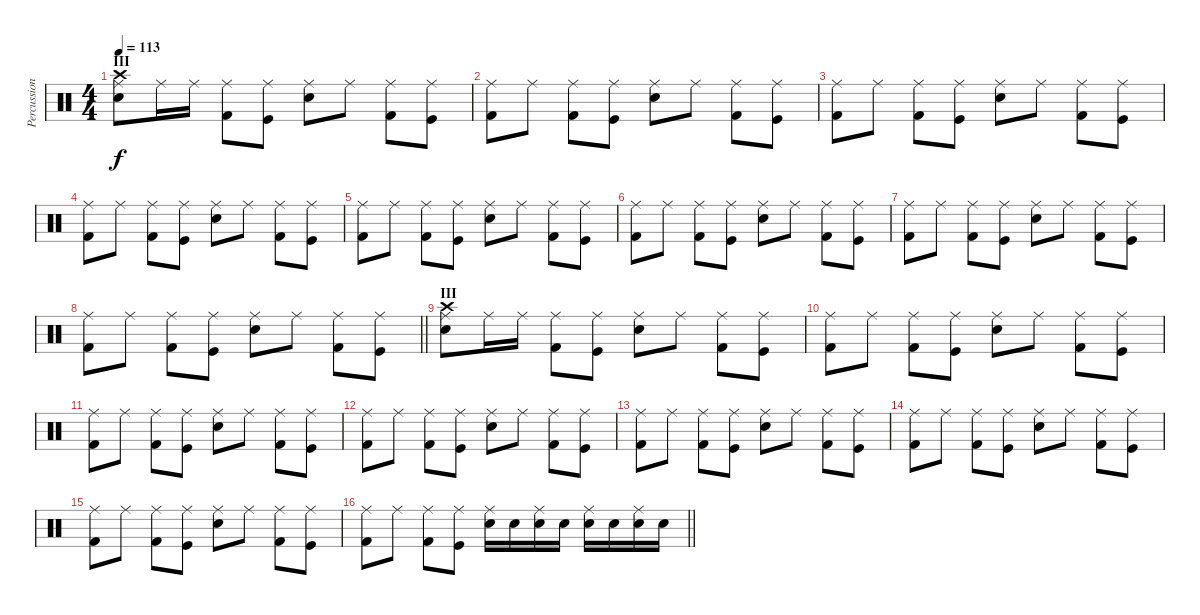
\track ("Percussion" "Percussion") {instrument percussion}
\staff {score}
\articulation defaults
\ts (4 4)
\section ("" "III")
\tempo 113
\clef neutral
\ks c
("Crash high (hit)" "Electric Snare (hit)" "Ride (middle)").8{dy f} "Ride (middle)".16 "Ride (middle)".16 ("Kick (hit) 2" "Ride (middle)").8 ("Kick (hit)" "Ride (middle)").8 ("Electric Snare (hit)" "Ride (middle)").8 "Ride (middle)".8 ("Kick (hit) 2" "Ride (middle)").8 ("Kick (hit)" "Ride (middle)").8 |
("Kick (hit) 2" "Ride (middle)").8 "Ride (middle)".8 ("Kick (hit) 2" "Ride (middle)").8 ("Kick (hit)" "Ride (middle)").8 ("Electric Snare (hit)" "Ride (middle)").8 "Ride (middle)".8 ("Kick (hit) 2" "Ride (middle)").8 ("Kick (hit)" "Ride (middle)").8 |
("Kick (hit) 2" "Ride (middle)").8 "Ride (middle)".8 ("Kick (hit) 2" "Ride (middle)").8 ("Kick (hit)" "Ride (middle)").8 ("Electric Snare (hit)" "Ride (middle)").8 "Ride (middle)".8 ("Kick (hit) 2" "Ride (middle)").8 ("Kick (hit)" "Ride (middle)").8 |
("Kick (hit) 2" "Ride (middle)").8 "Ride (middle)".8 ("Kick (hit) 2" "Ride (middle)").8 ("Kick (hit)" "Ride (middle)").8 ("Electric Snare (hit)" "Ride (middle)").8 "Ride (middle)".8 ("Kick (hit) 2" "Ride (middle)").8 ("Kick (hit)" "Ride (middle)").8 |
("Kick (hit) 2" "Ride (middle)").8 "Ride (middle)".8 ("Kick (hit) 2" "Ride (middle)").8 ("Kick (hit)" "Ride (middle)").8 ("Electric Snare (hit)" "Ride (middle)").8 "Ride (middle)".8 ("Kick (hit) 2" "Ride (middle)").8 ("Kick (hit)" "Ride (middle)").8 |
("Kick (hit) 2" "Ride (middle)").8 "Ride (middle)".8 ("Kick (hit) 2" "Ride (middle)").8 ("Kick (hit)" "Ride (middle)").8 ("Electric Snare (hit)" "Ride (middle)").8 "Ride (middle)".8 ("Kick (hit) 2" "Ride (middle)").8 ("Kick (hit)" "Ride (middle)").8 |
("Kick (hit) 2" "Ride (middle)").8 "Ride (middle)".8 ("Kick (hit) 2" "Ride (middle)").8 ("Kick (hit)" "Ride (middle)").8 ("Electric Snare (hit)" "Ride (middle)").8 "Ride (middle)".8 ("Kick (hit) 2" "Ride (middle)").8 ("Kick (hit)" "Ride (middle)").8 |
\barLineRight lightlight
("Kick (hit) 2" "Ride (middle)").8 "Ride (middle)".8 ("Kick (hit) 2" "Ride (middle)").8 ("Kick (hit)" "Ride (middle)").8 ("Electric Snare (hit)" "Ride (middle)").8 "Ride (middle)".8 ("Kick (hit) 2" "Ride (middle)").8 ("Kick (hit)" "Ride (middle)").8 |
\section ("" "III")
("Crash high (hit)" "Electric Snare (hit)" "Ride (middle)").8 "Ride (middle)".16 "Ride (middle)".16 ("Kick (hit) 2" "Ride (middle)").8 ("Kick (hit)" "Ride (middle)").8 ("Electric Snare (hit)" "Ride (middle)").8 "Ride (middle)".8 ("Kick (hit) 2" "Ride (middle)").8 ("Kick (hit)" "Ride (middle)").8 |
("Kick (hit) 2" "Ride (middle)").8 "Ride (middle)".8 ("Kick (hit) 2" "Ride (middle)").8 ("Kick (hit)" "Ride (middle)").8 ("Electric Snare (hit)" "Ride (middle)").8 "Ride (middle)".8 ("Kick (hit) 2" "Ride (middle)").8 ("Kick (hit)" "Ride (middle)").8 |
("Kick (hit) 2" "Ride (middle)").8 "Ride (middle)".8 ("Kick (hit) 2" "Ride (middle)").8 ("Kick (hit)" "Ride (middle)").8 ("Electric Snare (hit)" "Ride (middle)").8 "Ride (middle)".8 ("Kick (hit) 2" "Ride (middle)").8 ("Kick (hit)" "Ride (middle)").8 |
("Kick (hit) 2" "Ride (middle)").8 "Ride (middle)".8 ("Kick (hit) 2" "Ride (middle)").8 ("Kick (hit)" "Ride (middle)").8 ("Electric Snare (hit)" "Ride (middle)").8 "Ride (middle)".8 ("Kick (hit) 2" "Ride (middle)").8 ("Kick (hit)" "Ride (middle)").8 |
("Kick (hit) 2" "Ride (middle)").8 "Ride (middle)".8 ("Kick (hit) 2" "Ride (middle)").8 ("Kick (hit)" "Ride (middle)").8 ("Electric Snare (hit)" "Ride (middle)").8 "Ride (middle)".8 ("Kick (hit) 2" "Ride (middle)").8 ("Kick (hit)" "Ride (middle)").8 |
("Kick (hit) 2" "Ride (middle)").8 "Ride (middle)".8 ("Kick (hit) 2" "Ride (middle)").8 ("Kick (hit)" "Ride (middle)").8 ("Electric Snare (hit)" "Ride (middle)").8 "Ride (middle)".8 ("Kick (hit) 2" "Ride (middle)").8 ("Kick (hit)" "Ride (middle)").8 |
("Kick (hit) 2" "Ride (middle)").8 "Ride (middle)".8 ("Kick (hit) 2" "Ride (middle)").8 ("Kick (hit)" "Ride (middle)").8 ("Electric Snare (hit)" "Ride (middle)").8 "Ride (middle)".8 ("Kick (hit) 2" "Ride (middle)").8 ("Kick (hit)" "Ride (middle)").8 |
\barLineRight lightlight
("Kick (hit) 2" "Ride (middle)").8 "Ride (middle)".8 ("Kick (hit) 2" "Ride (middle)").8 ("Kick (hit)" "Ride (middle)").8 ("Electric Snare (hit)" "Ride (middle)").16 "Electric Snare (hit)".16 ("Electric Snare (hit)" "Ride (middle)").16 "Electric Snare (hit)".16 ("Electric Snare (hit)" "Ride (middle)").16 "Electric Snare (hit)".16 ("Electric Snare (hit)" "Ride (middle)").16 "Electric Snare (hit)".16
